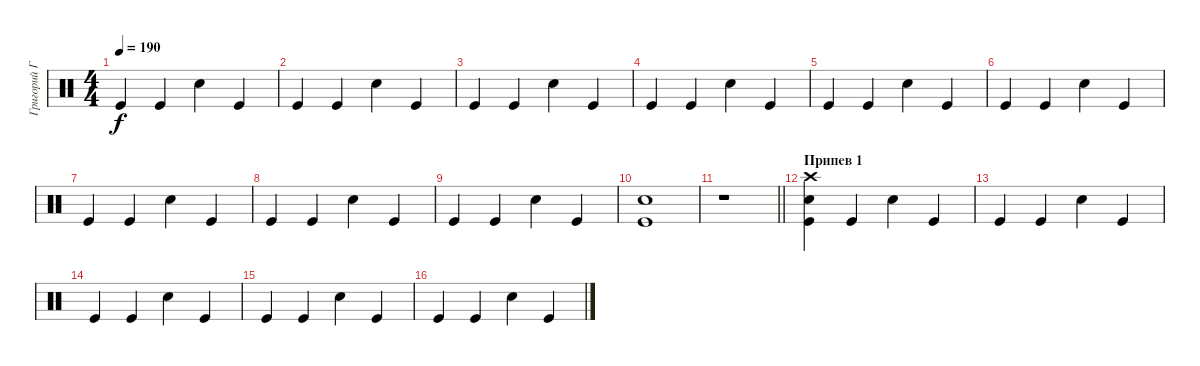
\track ("Григорий Габерман" "Григорий Г") {instrument percussion}
\staff {score}
\articulation defaults
\ts (4 4)
\tempo 190
\clef neutral
\ks c "Kick (hit)".4{dy f} "Kick (hit)".4 "Snare (hit) 2".4 "Kick (hit)".4
|
"Kick (hit)".4 "Kick (hit)".4 "Snare (hit) 2".4 "Kick (hit)".4 |
"Kick (hit)".4 "Kick (hit)".4 "Snare (hit) 2".4 "Kick (hit)".4 |
"Kick (hit)".4 "Kick (hit)".4 "Snare (hit) 2".4 "Kick (hit)".4 |
"Kick (hit)".4 "Kick (hit)".4 "Snare (hit) 2".4 "Kick (hit)".4 |
"Kick (hit)".4 "Kick (hit)".4 "Snare (hit) 2".4 "Kick (hit)".4 |
"Kick (hit)".4 "Kick (hit)".4 "Snare (hit) 2".4 "Kick (hit)".4 |
"Kick (hit)".4 "Kick (hit)".4 "Snare (hit) 2".4 "Kick (hit)".4 |
"Kick (hit)".4 "Kick (hit)".4 "Snare (hit) 2".4 "Kick (hit)".4 |
("Kick (hit)" "Snare (hit) 2").1 |
\barLineRight lightlight
r.1 |
\section ("" "Припев 1")
("Crash high (hit)" "Kick (hit)" "Snare (hit) 2").4 "Kick (hit)".4 "Snare (hit) 2".4 "Kick (hit)".4 |
"Kick (hit)".4 "Kick (hit)".4 "Snare (hit) 2".4 "Kick (hit)".4 |
"Kick (hit)".4 "Kick (hit)".4 "Snare (hit) 2".4 "Kick (hit)".4 |
"Kick (hit)".4 "Kick (hit)".4 "Snare (hit) 2".4 "Kick (hit)".4 |
"Kick (hit)".4 "Kick (hit)".4 "Snare (hit) 2".4 "Kick (hit)".4
